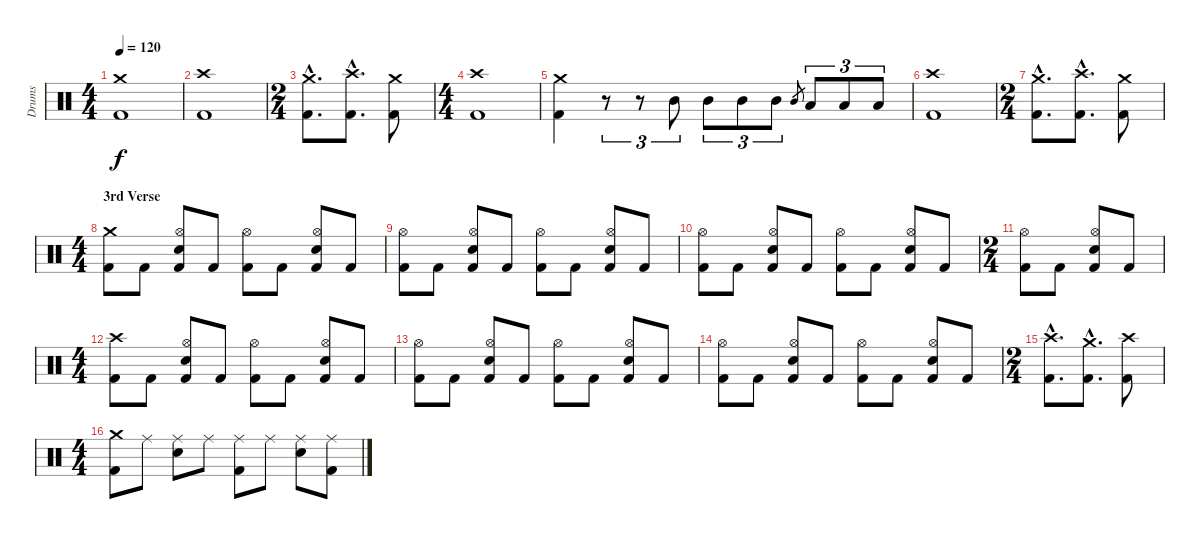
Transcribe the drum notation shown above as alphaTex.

\track ("Drums" "Drums") {instrument percussion}
\staff {score}
\articulation defaults
\ts (4 4)
\tempo 120
\clef neutral
\ks c
("Crash medium (hit)" "Kick (hit) 2").1{dy f} |
("Crash high (hit)" "Kick (hit) 2").1 |
\ts (2 4)
("Crash medium (hit)"{hac} "Kick (hit) 2"{hac}).8{d} ("Crash high (hit)"{hac} "Kick (hit) 2"{hac}).8{d} ("Crash medium (hit)" "Kick (hit) 2").8 |
\ts (4 4)
("Crash high (hit)" "Kick (hit) 2").1 |
("Crash medium (hit)" "Kick (hit) 2").4 r.8{tu (3 2)} r.8{tu (3 2)} "Mid Tom (hit)".8{tu (3 2)} "Mid Tom (hit)".8{tu (3 2)} "Mid Tom (hit)".8{tu (3 2)} "Mid Tom (hit)".8{tu (3 2)} "Mid Tom (hit)".8{gr} "Low Tom (hit)".8{tu (3 2)} "Low Tom (hit)".8{tu (3 2)} "Low Tom (hit)".8{tu (3 2)} |
("Crash high (hit)" "Kick (hit) 2").1 |
\ts (2 4)
("Crash medium (hit)"{hac} "Kick (hit) 2"{hac}).8{d} ("Crash high (hit)"{hac} "Kick (hit) 2"{hac}).8{d} ("Crash medium (hit)" "Kick (hit) 2").8 |
\ts (4 4)
\section ("" "3rd Verse")
("Crash medium (hit)" "Kick (hit) 2").8 "Kick (hit) 2".8 ("Hi-Hat (open)" "Snare (hit) 2" "Kick (hit) 2").8 "Kick (hit) 2".8 ("Hi-Hat (open)" "Kick (hit) 2").8 "Kick (hit) 2".8 ("Hi-Hat (open)" "Snare (hit) 2" "Kick (hit) 2").8 "Kick (hit) 2".8 |
("Hi-Hat (open)" "Kick (hit) 2").8 "Kick (hit) 2".8 ("Hi-Hat (open)" "Snare (hit) 2" "Kick (hit) 2").8 "Kick (hit) 2".8 ("Hi-Hat (open)" "Kick (hit) 2").8 "Kick (hit) 2".8 ("Hi-Hat (open)" "Snare (hit) 2" "Kick (hit) 2").8 "Kick (hit) 2".8 |
("Hi-Hat (open)" "Kick (hit) 2").8 "Kick (hit) 2".8 ("Hi-Hat (open)" "Snare (hit) 2" "Kick (hit) 2").8 "Kick (hit) 2".8 ("Hi-Hat (open)" "Kick (hit) 2").8 "Kick (hit) 2".8 ("Hi-Hat (open)" "Snare (hit) 2" "Kick (hit) 2").8 "Kick (hit) 2".8 |
\ts (2 4)
("Hi-Hat (open)" "Kick (hit) 2").8 "Kick (hit) 2".8 ("Hi-Hat (open)" "Snare (hit) 2" "Kick (hit) 2").8 "Kick (hit) 2".8 |
\ts (4 4)
("Crash high (hit)" "Kick (hit) 2").8 "Kick (hit) 2".8 ("Hi-Hat (open)" "Snare (hit) 2" "Kick (hit) 2").8 "Kick (hit) 2".8 ("Hi-Hat (open)" "Kick (hit) 2").8 "Kick (hit) 2".8 ("Hi-Hat (open)" "Snare (hit) 2" "Kick (hit) 2").8 "Kick (hit) 2".8 |
("Hi-Hat (open)" "Kick (hit) 2").8 "Kick (hit) 2".8 ("Hi-Hat (open)" "Snare (hit) 2" "Kick (hit) 2").8 "Kick (hit) 2".8 ("Hi-Hat (open)" "Kick (hit) 2").8 "Kick (hit) 2".8 ("Hi-Hat (open)" "Snare (hit) 2" "Kick (hit) 2").8 "Kick (hit) 2".8 |
("Hi-Hat (open)" "Kick (hit) 2").8 "Kick (hit) 2".8 ("Hi-Hat (open)" "Snare (hit) 2" "Kick (hit) 2").8 "Kick (hit) 2".8 ("Hi-Hat (open)" "Kick (hit) 2").8 "Kick (hit) 2".8 ("Hi-Hat (open)" "Snare (hit) 2" "Kick (hit) 2").8 "Kick (hit) 2".8 |
\ts (2 4)
("Crash high (hit)"{hac} "Kick (hit) 2"{hac}).8{d} ("Crash medium (hit)"{hac} "Kick (hit) 2"{hac}).8{d} ("Crash high (hit)" "Kick (hit) 2").8 |
\ts (4 4)
("Crash medium (hit)" "Kick (hit) 2").8 "Ride (middle)".8 ("Ride (middle)" "Snare (hit) 2").8 "Ride (middle)".8 ("Ride (middle)" "Kick (hit) 2").8 "Ride (middle)".8 ("Ride (middle)" "Snare (hit) 2").8 ("Ride (middle)" "Kick (hit) 2").8
